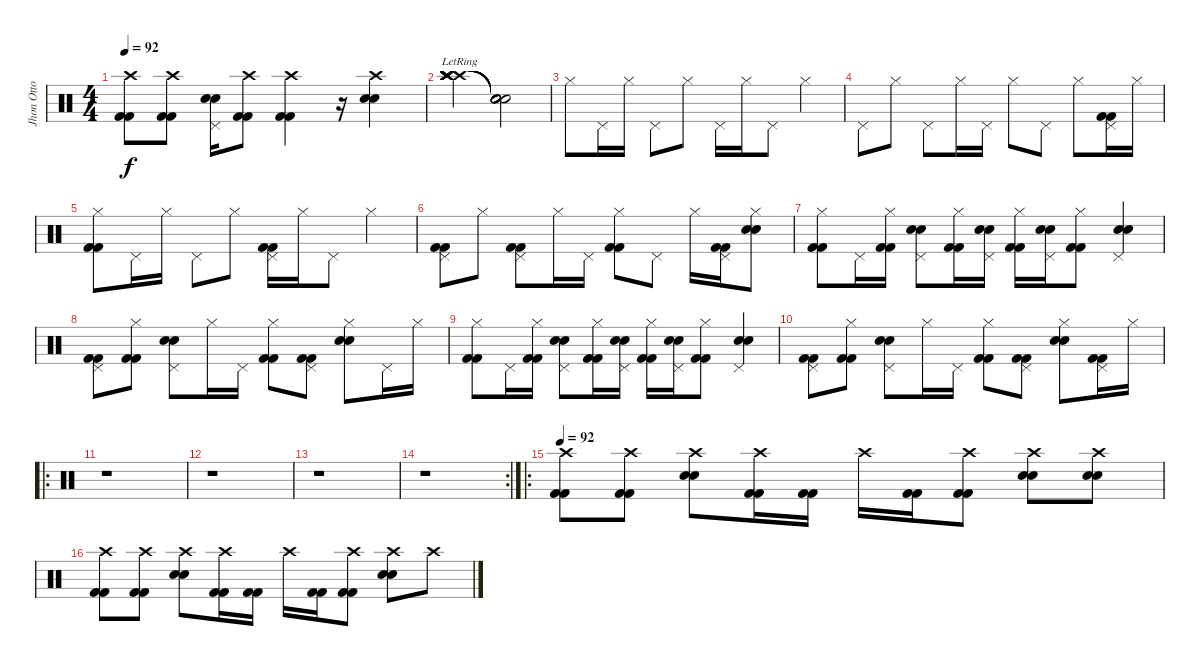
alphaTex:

\track ("Jhon Otto" "Jhon Otto") {instrument percussion}
\staff {score}
\articulation defaults
\ts (4 4)
\tempo 92
\clef neutral
\ks c
("Crash high (hit)" "Kick (hit) 2" "Kick (hit) 2").8{dy f} ("Crash high (hit)" "Kick (hit) 2" "Kick (hit) 2").8 ("Pedal Hi-Hat (hit)" "Electric Snare (hit)" "Electric Snare (hit)").16 ("Crash high (hit)" "Kick (hit) 2" "Kick (hit) 2").8 ("Crash high (hit)" "Kick (hit) 2" "Kick (hit) 2").4 r.16 ("Crash high (hit)" "Electric Snare (hit)" "Electric Snare (hit)").4 |
("Crash high (hit)"{lr} "Crash high (hit)"{lr} "Crash high (hit)"{lr} "Crash high (hit)"{lr} "Crash high (hit)"{lr} "Crash high (hit)"{lr}).2 ("Snare (hit)"{t} "Snare (hit)"{t} "Snare (hit)"{t} "Snare (hit)"{t} "Snare (hit)"{t} "Snare (hit)"{t}).2 |
"Hi-Hat (closed)".8 "Pedal Hi-Hat (hit)".16 "Hi-Hat (closed)".16 "Pedal Hi-Hat (hit)".8 "Hi-Hat (closed)".8 "Pedal Hi-Hat (hit)".16 "Hi-Hat (closed)".16 "Pedal Hi-Hat (hit)".8 "Hi-Hat (closed)".4 |
"Pedal Hi-Hat (hit)".8 "Hi-Hat (closed)".8 "Pedal Hi-Hat (hit)".8 "Hi-Hat (closed)".16 "Pedal Hi-Hat (hit)".16 "Hi-Hat (closed)".8 "Pedal Hi-Hat (hit)".8 "Hi-Hat (closed)".8 ("Pedal Hi-Hat (hit)" "Kick (hit) 2" "Kick (hit) 2").16 "Hi-Hat (closed)".16 |
("Hi-Hat (closed)" "Kick (hit) 2" "Kick (hit) 2").8 "Pedal Hi-Hat (hit)".16 "Hi-Hat (closed)".16 "Pedal Hi-Hat (hit)".8 "Hi-Hat (closed)".8 ("Pedal Hi-Hat (hit)" "Kick (hit) 2" "Kick (hit) 2").16 "Hi-Hat (closed)".16 "Pedal Hi-Hat (hit)".8 "Hi-Hat (closed)".4 |
("Pedal Hi-Hat (hit)" "Kick (hit) 2" "Kick (hit) 2").8 "Hi-Hat (closed)".8 ("Pedal Hi-Hat (hit)" "Kick (hit) 2" "Kick (hit) 2").8 "Hi-Hat (closed)".16 "Pedal Hi-Hat (hit)".16 ("Hi-Hat (closed)" "Kick (hit) 2" "Kick (hit) 2").8 "Pedal Hi-Hat (hit)".8 "Hi-Hat (closed)".16 ("Pedal Hi-Hat (hit)" "Kick (hit) 2" "Kick (hit) 2").16 ("Hi-Hat (closed)" "Electric Snare (hit)" "Electric Snare (hit)").8 |
("Hi-Hat (closed)" "Kick (hit) 2" "Kick (hit) 2").8 "Pedal Hi-Hat (hit)".16 ("Hi-Hat (closed)" "Kick (hit) 2" "Kick (hit) 2").16 ("Pedal Hi-Hat (hit)" "Electric Snare (hit)" "Electric Snare (hit)").8 ("Hi-Hat (closed)" "Kick (hit) 2" "Kick (hit) 2").16 ("Pedal Hi-Hat (hit)" "Electric Snare (hit)" "Electric Snare (hit)").16 ("Hi-Hat (closed)" "Kick (hit) 2" "Kick (hit) 2").16 ("Pedal Hi-Hat (hit)" "Electric Snare (hit)" "Electric Snare (hit)").16 ("Hi-Hat (closed)" "Kick (hit) 2" "Kick (hit) 2").8 ("Pedal Hi-Hat (hit)" "Electric Snare (hit)" "Electric Snare (hit)").4 |
("Pedal Hi-Hat (hit)" "Kick (hit) 2" "Kick (hit) 2").8 ("Hi-Hat (closed)" "Kick (hit) 2" "Kick (hit) 2").8 ("Pedal Hi-Hat (hit)" "Electric Snare (hit)" "Electric Snare (hit)").8 "Hi-Hat (closed)".16 "Pedal Hi-Hat (hit)".16 ("Hi-Hat (closed)" "Kick (hit) 2" "Kick (hit) 2").8 ("Pedal Hi-Hat (hit)" "Kick (hit) 2" "Kick (hit) 2").8 ("Hi-Hat (closed)" "Electric Snare (hit)" "Electric Snare (hit)").8 "Pedal Hi-Hat (hit)".16 "Hi-Hat (closed)".16 |
("Hi-Hat (closed)" "Kick (hit) 2" "Kick (hit) 2").8 "Pedal Hi-Hat (hit)".16 ("Hi-Hat (closed)" "Kick (hit) 2" "Kick (hit) 2").16 ("Pedal Hi-Hat (hit)" "Electric Snare (hit)" "Electric Snare (hit)").8 ("Hi-Hat (closed)" "Kick (hit) 2" "Kick (hit) 2").16 ("Pedal Hi-Hat (hit)" "Electric Snare (hit)" "Electric Snare (hit)").16 ("Hi-Hat (closed)" "Kick (hit) 2" "Kick (hit) 2").16 ("Pedal Hi-Hat (hit)" "Electric Snare (hit)" "Electric Snare (hit)").16 ("Hi-Hat (closed)" "Kick (hit) 2" "Kick (hit) 2").8 ("Pedal Hi-Hat (hit)" "Electric Snare (hit)" "Electric Snare (hit)").4 |
("Pedal Hi-Hat (hit)" "Kick (hit) 2" "Kick (hit) 2").8 ("Hi-Hat (closed)" "Kick (hit) 2" "Kick (hit) 2").8 ("Pedal Hi-Hat (hit)" "Electric Snare (hit)" "Electric Snare (hit)").8 "Hi-Hat (closed)".16 "Pedal Hi-Hat (hit)".16 ("Hi-Hat (closed)" "Kick (hit) 2" "Kick (hit) 2").8 ("Pedal Hi-Hat (hit)" "Kick (hit) 2" "Kick (hit) 2").8 ("Hi-Hat (closed)" "Electric Snare (hit)" "Electric Snare (hit)").8 ("Pedal Hi-Hat (hit)" "Kick (hit) 2" "Kick (hit) 2").16 "Hi-Hat (closed)".16 |
\ro
r.1 |
r.1 |
r.1 |
\rc 2
r.1 |
\ro
\tempo 92
("Crash high (hit)" "Kick (hit) 2" "Kick (hit) 2").8 ("Crash high (hit)" "Kick (hit) 2" "Kick (hit) 2").8 ("Crash high (hit)" "Electric Snare (hit)" "Electric Snare (hit)").8 ("Crash high (hit)" "Kick (hit) 2" "Kick (hit) 2").16 ("Kick (hit) 2" "Kick (hit) 2").16 "Crash high (hit)".16 ("Kick (hit) 2" "Kick (hit) 2").16 ("Crash high (hit)" "Kick (hit) 2" "Kick (hit) 2").8 ("Crash high (hit)" "Electric Snare (hit)" "Electric Snare (hit)").8 ("Crash high (hit)" "Electric Snare (hit)" "Electric Snare (hit)").8 |
("Crash high (hit)" "Kick (hit) 2" "Kick (hit) 2").8 ("Crash high (hit)" "Kick (hit) 2" "Kick (hit) 2").8 ("Crash high (hit)" "Electric Snare (hit)" "Electric Snare (hit)").8 ("Crash high (hit)" "Kick (hit) 2" "Kick (hit) 2").16 ("Kick (hit) 2" "Kick (hit) 2").16 "Crash high (hit)".16 ("Kick (hit) 2" "Kick (hit) 2").16 ("Crash high (hit)" "Kick (hit) 2" "Kick (hit) 2").8 ("Crash high (hit)" "Electric Snare (hit)" "Electric Snare (hit)").8 "Crash high (hit)".8
